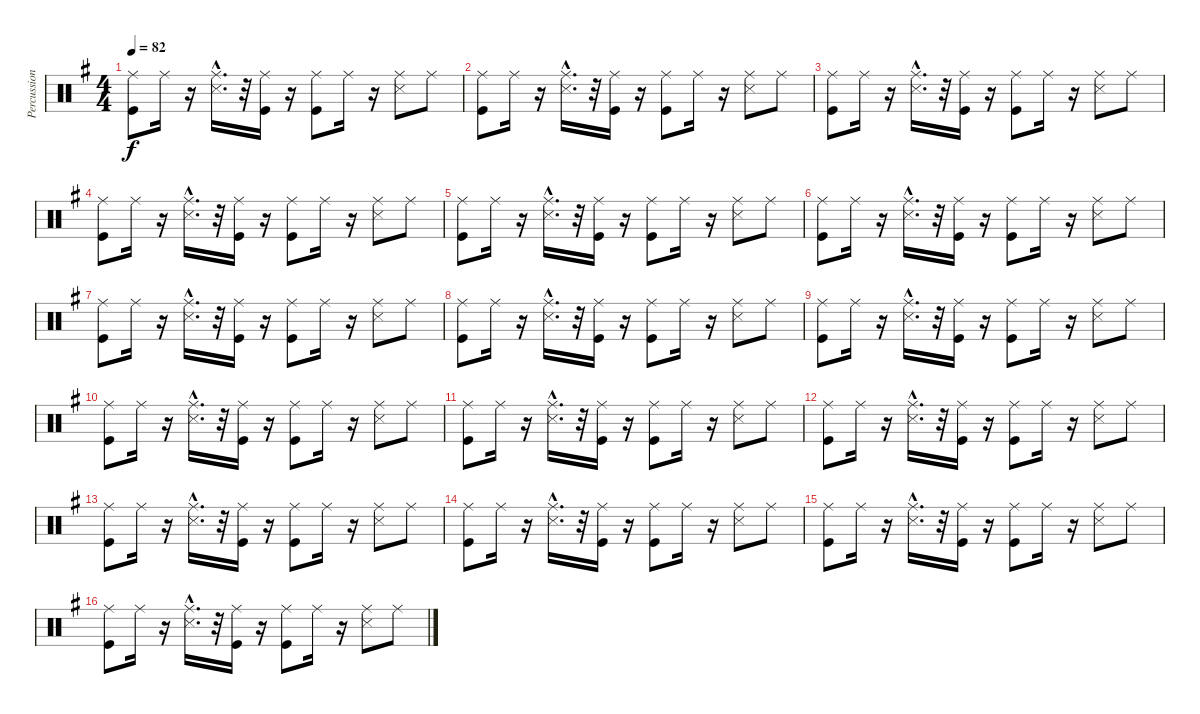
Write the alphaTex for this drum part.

\track ("Percussion" "Percussion") {instrument percussion}
\staff {score}
\articulation defaults
\ts (4 4)
\tempo 82
\clef neutral
\ks g
("Kick (hit)" "Ride (middle)").8{dy f} "Ride (middle)".16 r.16 ("Snare (side stick) 3"{hac} "Ride (middle)"{hac}).16{d} r.32 ("Ride (middle)" "Kick (hit)").16 r.16 ("Ride (middle)" "Kick (hit)").8 "Ride (middle)".16 r.16 ("Snare (side stick) 3" "Ride (middle)").8 "Ride (middle)".8 |
("Kick (hit)" "Ride (middle)").8 "Ride (middle)".16 r.16 ("Snare (side stick) 3"{hac} "Ride (middle)"{hac}).16{d} r.32 ("Ride (middle)" "Kick (hit)").16 r.16 ("Ride (middle)" "Kick (hit)").8 "Ride (middle)".16 r.16 ("Snare (side stick) 3" "Ride (middle)").8 "Ride (middle)".8 |
("Kick (hit)" "Ride (middle)").8 "Ride (middle)".16 r.16 ("Snare (side stick) 3"{hac} "Ride (middle)"{hac}).16{d} r.32 ("Ride (middle)" "Kick (hit)").16 r.16 ("Ride (middle)" "Kick (hit)").8 "Ride (middle)".16 r.16 ("Snare (side stick) 3" "Ride (middle)").8 "Ride (middle)".8 |
("Kick (hit)" "Ride (middle)").8 "Ride (middle)".16 r.16 ("Snare (side stick) 3"{hac} "Ride (middle)"{hac}).16{d} r.32 ("Ride (middle)" "Kick (hit)").16 r.16 ("Ride (middle)" "Kick (hit)").8 "Ride (middle)".16 r.16 ("Snare (side stick) 3" "Ride (middle)").8 "Ride (middle)".8 |
("Kick (hit)" "Ride (middle)").8 "Ride (middle)".16 r.16 ("Snare (side stick) 3"{hac} "Ride (middle)"{hac}).16{d} r.32 ("Ride (middle)" "Kick (hit)").16 r.16 ("Ride (middle)" "Kick (hit)").8 "Ride (middle)".16 r.16 ("Snare (side stick) 3" "Ride (middle)").8 "Ride (middle)".8 |
("Kick (hit)" "Ride (middle)").8 "Ride (middle)".16 r.16 ("Snare (side stick) 3"{hac} "Ride (middle)"{hac}).16{d} r.32 ("Ride (middle)" "Kick (hit)").16 r.16 ("Ride (middle)" "Kick (hit)").8 "Ride (middle)".16 r.16 ("Snare (side stick) 3" "Ride (middle)").8 "Ride (middle)".8 |
("Kick (hit)" "Ride (middle)").8 "Ride (middle)".16 r.16 ("Snare (side stick) 3"{hac} "Ride (middle)"{hac}).16{d} r.32 ("Ride (middle)" "Kick (hit)").16 r.16 ("Ride (middle)" "Kick (hit)").8 "Ride (middle)".16 r.16 ("Snare (side stick) 3" "Ride (middle)").8 "Ride (middle)".8 |
("Kick (hit)" "Ride (middle)").8 "Ride (middle)".16 r.16 ("Snare (side stick) 3"{hac} "Ride (middle)"{hac}).16{d} r.32 ("Ride (middle)" "Kick (hit)").16 r.16 ("Ride (middle)" "Kick (hit)").8 "Ride (middle)".16 r.16 ("Snare (side stick) 3" "Ride (middle)").8 "Ride (middle)".8 |
("Kick (hit)" "Ride (middle)").8 "Ride (middle)".16 r.16 ("Snare (side stick) 3"{hac} "Ride (middle)"{hac}).16{d} r.32 ("Ride (middle)" "Kick (hit)").16 r.16 ("Ride (middle)" "Kick (hit)").8 "Ride (middle)".16 r.16 ("Snare (side stick) 3" "Ride (middle)").8 "Ride (middle)".8 |
("Kick (hit)" "Ride (middle)").8 "Ride (middle)".16 r.16 ("Snare (side stick) 3"{hac} "Ride (middle)"{hac}).16{d} r.32 ("Ride (middle)" "Kick (hit)").16 r.16 ("Ride (middle)" "Kick (hit)").8 "Ride (middle)".16 r.16 ("Snare (side stick) 3" "Ride (middle)").8 "Ride (middle)".8 |
("Kick (hit)" "Ride (middle)").8 "Ride (middle)".16 r.16 ("Snare (side stick) 3"{hac} "Ride (middle)"{hac}).16{d} r.32 ("Ride (middle)" "Kick (hit)").16 r.16 ("Ride (middle)" "Kick (hit)").8 "Ride (middle)".16 r.16 ("Snare (side stick) 3" "Ride (middle)").8 "Ride (middle)".8 |
("Kick (hit)" "Ride (middle)").8 "Ride (middle)".16 r.16 ("Snare (side stick) 3"{hac} "Ride (middle)"{hac}).16{d} r.32 ("Ride (middle)" "Kick (hit)").16 r.16 ("Ride (middle)" "Kick (hit)").8 "Ride (middle)".16 r.16 ("Snare (side stick) 3" "Ride (middle)").8 "Ride (middle)".8 |
("Kick (hit)" "Ride (middle)").8 "Ride (middle)".16 r.16 ("Snare (side stick) 3"{hac} "Ride (middle)"{hac}).16{d} r.32 ("Ride (middle)" "Kick (hit)").16 r.16 ("Ride (middle)" "Kick (hit)").8 "Ride (middle)".16 r.16 ("Snare (side stick) 3" "Ride (middle)").8 "Ride (middle)".8 |
("Kick (hit)" "Ride (middle)").8 "Ride (middle)".16 r.16 ("Snare (side stick) 3"{hac} "Ride (middle)"{hac}).16{d} r.32 ("Ride (middle)" "Kick (hit)").16 r.16 ("Ride (middle)" "Kick (hit)").8 "Ride (middle)".16 r.16 ("Snare (side stick) 3" "Ride (middle)").8 "Ride (middle)".8 |
("Kick (hit)" "Ride (middle)").8 "Ride (middle)".16 r.16 ("Snare (side stick) 3"{hac} "Ride (middle)"{hac}).16{d} r.32 ("Ride (middle)" "Kick (hit)").16 r.16 ("Ride (middle)" "Kick (hit)").8 "Ride (middle)".16 r.16 ("Snare (side stick) 3" "Ride (middle)").8 "Ride (middle)".8 |
("Kick (hit)" "Ride (middle)").8 "Ride (middle)".16 r.16 ("Snare (side stick) 3"{hac} "Ride (middle)"{hac}).16{d} r.32 ("Ride (middle)" "Kick (hit)").16 r.16 ("Ride (middle)" "Kick (hit)").8 "Ride (middle)".16 r.16 ("Snare (side stick) 3" "Ride (middle)").8 "Ride (middle)".8
